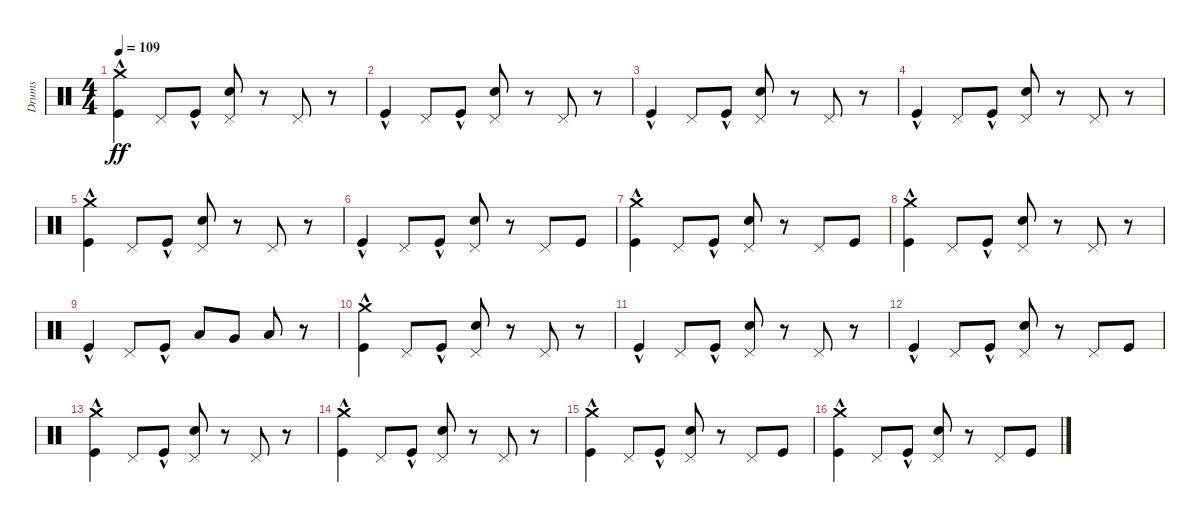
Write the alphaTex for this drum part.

\track ("Drums" "Drums") {instrument percussion}
\staff {score}
\articulation defaults
\ts (4 4)
\tempo 109
\clef neutral
\ks c
("Kick (hit)"{hac} "Crash medium (hit)"{hac}).4{dy ff} "Pedal Hi-Hat (hit)".8 "Kick (hit)"{hac}.8 ("Electric Snare (hit)" "Pedal Hi-Hat (hit)").8 r.8 "Pedal Hi-Hat (hit)".8 r.8 |
"Kick (hit)"{hac}.4 "Pedal Hi-Hat (hit)".8 "Kick (hit)"{hac}.8 ("Electric Snare (hit)" "Pedal Hi-Hat (hit)").8 r.8 "Pedal Hi-Hat (hit)".8 r.8 |
"Kick (hit)"{hac}.4 "Pedal Hi-Hat (hit)".8 "Kick (hit)"{hac}.8 ("Electric Snare (hit)" "Pedal Hi-Hat (hit)").8 r.8 "Pedal Hi-Hat (hit)".8 r.8 |
"Kick (hit)"{hac}.4 "Pedal Hi-Hat (hit)".8 "Kick (hit)"{hac}.8 ("Electric Snare (hit)" "Pedal Hi-Hat (hit)").8 r.8 "Pedal Hi-Hat (hit)".8 r.8 |
("Kick (hit)"{hac} "Crash medium (hit)"{hac}).4 "Pedal Hi-Hat (hit)".8 "Kick (hit)"{hac}.8 ("Electric Snare (hit)" "Pedal Hi-Hat (hit)").8 r.8 "Pedal Hi-Hat (hit)".8 r.8 |
"Kick (hit)"{hac}.4 "Pedal Hi-Hat (hit)".8 "Kick (hit)"{hac}.8 ("Electric Snare (hit)" "Pedal Hi-Hat (hit)").8 r.8 "Pedal Hi-Hat (hit)".8 "Kick (hit)".8 |
("Kick (hit)"{hac} "Crash medium (hit)"{hac}).4 "Pedal Hi-Hat (hit)".8 "Kick (hit)"{hac}.8 ("Electric Snare (hit)" "Pedal Hi-Hat (hit)").8 r.8 "Pedal Hi-Hat (hit)".8 "Kick (hit)".8 |
("Kick (hit)"{hac} "Crash medium (hit)"{hac}).4 "Pedal Hi-Hat (hit)".8 "Kick (hit)"{hac}.8 ("Electric Snare (hit)" "Pedal Hi-Hat (hit)").8 r.8 "Pedal Hi-Hat (hit)".8 r.8 |
"Kick (hit)"{hac}.4 "Pedal Hi-Hat (hit)".8 "Kick (hit)"{hac}.8 "Low Tom (hit)".8 "Very Low Tom (hit)".8 "Low Floor Tom (hit)".8 r.8 |
("Kick (hit)"{hac} "Crash medium (hit)"{hac}).4 "Pedal Hi-Hat (hit)".8 "Kick (hit)"{hac}.8 ("Electric Snare (hit)" "Pedal Hi-Hat (hit)").8 r.8 "Pedal Hi-Hat (hit)".8 r.8 |
"Kick (hit)"{hac}.4 "Pedal Hi-Hat (hit)".8 "Kick (hit)"{hac}.8 ("Electric Snare (hit)" "Pedal Hi-Hat (hit)").8 r.8 "Pedal Hi-Hat (hit)".8 r.8 |
"Kick (hit)"{hac}.4 "Pedal Hi-Hat (hit)".8 "Kick (hit)"{hac}.8 ("Electric Snare (hit)" "Pedal Hi-Hat (hit)").8 r.8 "Pedal Hi-Hat (hit)".8 "Kick (hit)".8 |
("Kick (hit)"{hac} "Crash medium (hit)"{hac}).4 "Pedal Hi-Hat (hit)".8 "Kick (hit)"{hac}.8 ("Electric Snare (hit)" "Pedal Hi-Hat (hit)").8 r.8 "Pedal Hi-Hat (hit)".8 r.8 |
("Kick (hit)"{hac} "Crash medium (hit)"{hac}).4 "Pedal Hi-Hat (hit)".8 "Kick (hit)"{hac}.8 ("Electric Snare (hit)" "Pedal Hi-Hat (hit)").8 r.8 "Pedal Hi-Hat (hit)".8 r.8 |
("Kick (hit)"{hac} "Crash medium (hit)"{hac}).4 "Pedal Hi-Hat (hit)".8 "Kick (hit)"{hac}.8 ("Electric Snare (hit)" "Pedal Hi-Hat (hit)").8 r.8 "Pedal Hi-Hat (hit)".8 "Kick (hit)".8 |
("Kick (hit)"{hac} "Crash medium (hit)"{hac}).4 "Pedal Hi-Hat (hit)".8 "Kick (hit)"{hac}.8 ("Electric Snare (hit)" "Pedal Hi-Hat (hit)").8 r.8 "Pedal Hi-Hat (hit)".8 "Kick (hit)".8
